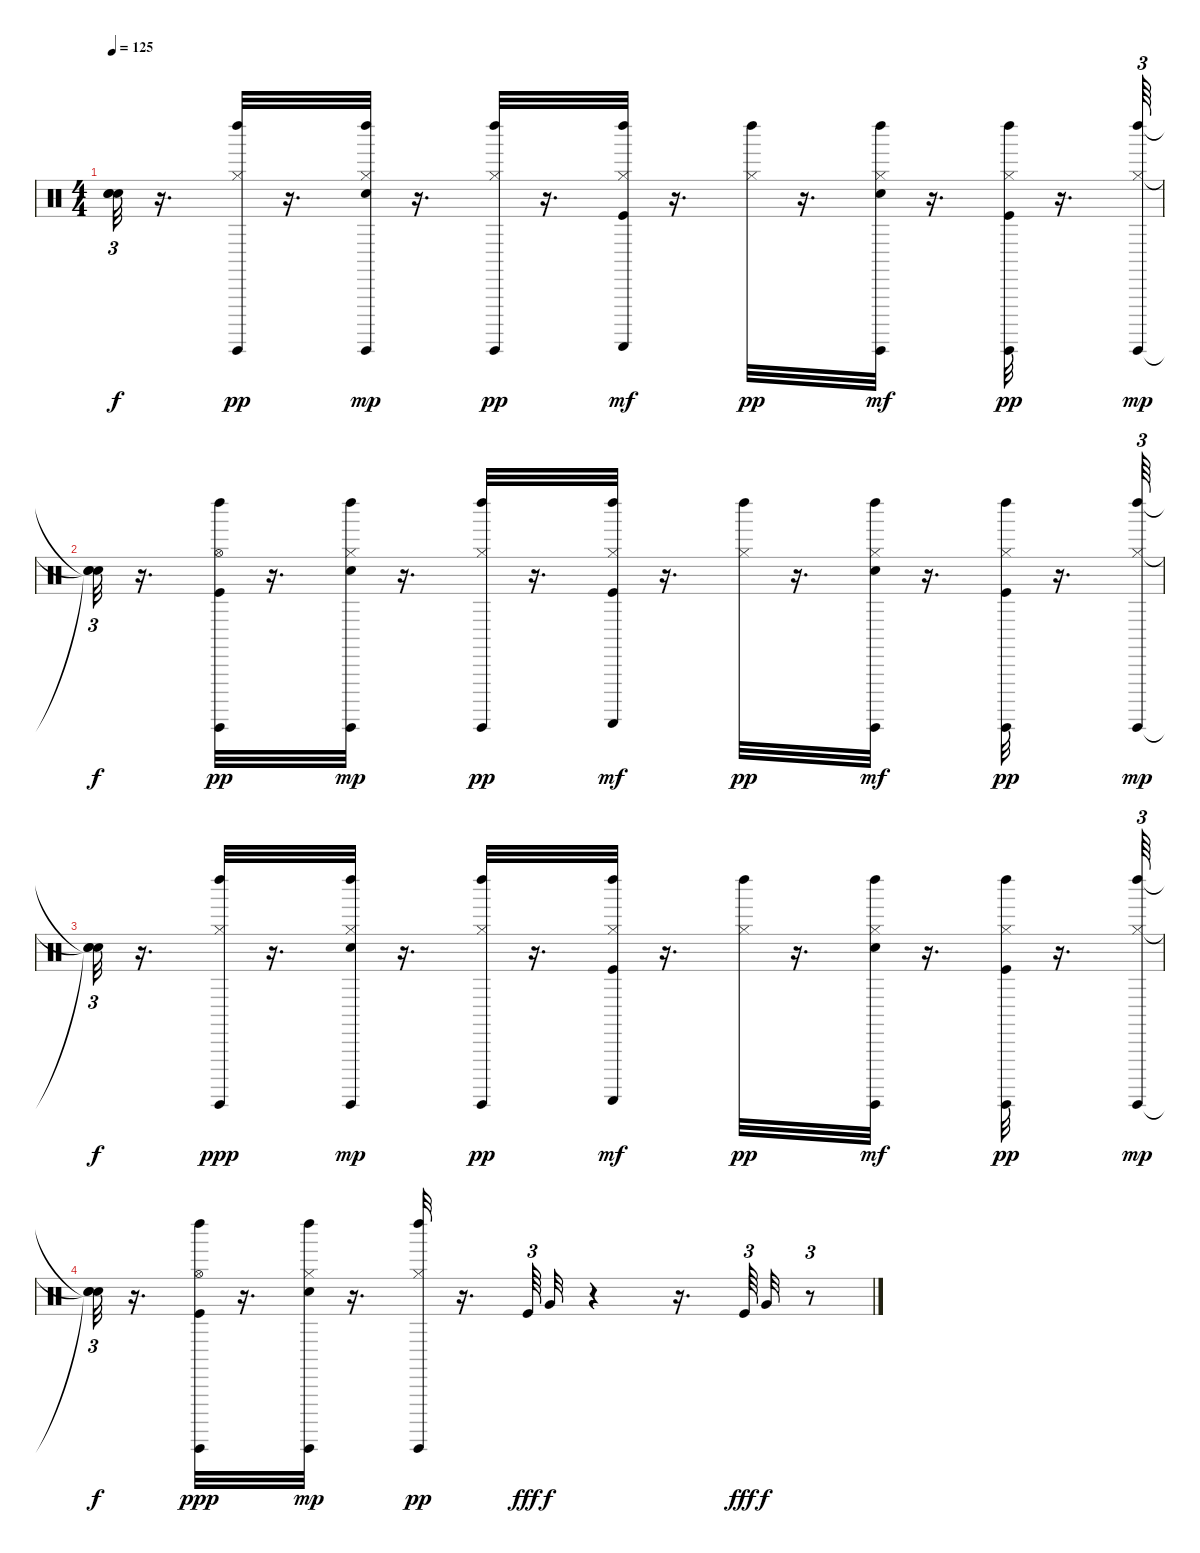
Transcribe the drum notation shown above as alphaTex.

\track "" {instrument percussion}
\staff {score}
\articulation defaults
\ts (4 4)
\tempo 125
\clef neutral
\ks c
("Snare (hit)"{t} "Snare (hit)"{t} "Snare (hit)"{t}).32{tu (3 2) dy f} r.16{d} ("Hi-Hat (closed)" "Left Maraca (hit)" "Guiro (hit)").32{dy pp} r.16{d} ("Left Maraca (hit)" "Hi-Hat (closed)" "Electric Snare (hit)" "Guiro (hit)").32{dy mp} r.16{d} ("Hi-Hat (closed)" "Left Maraca (hit)" "Guiro (hit)").32{dy pp} r.16{d} ("Kick (hit)" "Hi-Hat (closed)" "Left Maraca (hit)" "Guiro (scrap-return)").32{dy mf} r.16{d} ("Hi-Hat (closed)" "Left Maraca (hit)").32{dy pp} r.16{d} ("Left Maraca (hit)" "Hi-Hat (closed)" "Electric Snare (hit)" "Guiro (hit)").32{dy mf} r.16{d} ("Hi-Hat (closed)" "Left Maraca (hit)" "Kick (hit)" "Guiro (hit)").32{dy pp} r.16{d} ("Left Maraca (hit)" "Hi-Hat (closed)" "Guiro (hit)").64{tu (3 2) dy mp} |
("Snare (hit)"{t} "Snare (hit)"{t} "Snare (hit)"{t}).32{tu (3 2) dy f} r.16{d} ("Left Maraca (hit)" "Hi-Hat (open)" "Kick (hit)" "Guiro (hit)").32{dy pp} r.16{d} ("Left Maraca (hit)" "Electric Snare (hit)" "Hi-Hat (closed)" "Guiro (hit)").32{dy mp} r.16{d} ("Left Maraca (hit)" "Hi-Hat (closed)" "Guiro (hit)").32{dy pp} r.16{d} ("Kick (hit)" "Hi-Hat (closed)" "Left Maraca (hit)" "Guiro (scrap-return)").32{dy mf} r.16{d} ("Left Maraca (hit)" "Hi-Hat (closed)").32{dy pp} r.16{d} ("Left Maraca (hit)" "Hi-Hat (closed)" "Electric Snare (hit)" "Guiro (hit)").32{dy mf} r.16{d} ("Kick (hit)" "Hi-Hat (closed)" "Left Maraca (hit)" "Guiro (hit)").32{dy pp} r.16{d} ("Hi-Hat (closed)" "Left Maraca (hit)" "Guiro (hit)").64{tu (3 2) dy mp} |
("Snare (hit)"{t} "Snare (hit)"{t} "Snare (hit)"{t}).32{tu (3 2) dy f} r.16{d} ("Hi-Hat (closed)" "Left Maraca (hit)" "Guiro (hit)").32{dy ppp} r.16{d} ("Left Maraca (hit)" "Electric Snare (hit)" "Hi-Hat (closed)" "Guiro (hit)").32{dy mp} r.16{d} ("Left Maraca (hit)" "Hi-Hat (closed)" "Guiro (hit)").32{dy pp} r.16{d} ("Left Maraca (hit)" "Hi-Hat (closed)" "Kick (hit)" "Guiro (scrap-return)").32{dy mf} r.16{d} ("Left Maraca (hit)" "Hi-Hat (closed)").32{dy pp} r.16{d} ("Electric Snare (hit)" "Hi-Hat (closed)" "Left Maraca (hit)" "Guiro (hit)").32{dy mf} r.16{d} ("Left Maraca (hit)" "Hi-Hat (closed)" "Kick (hit)" "Guiro (hit)").32{dy pp} r.16{d} ("Hi-Hat (closed)" "Left Maraca (hit)" "Guiro (hit)").64{tu (3 2) dy mp} |
("Snare (hit)"{t} "Snare (hit)"{t} "Snare (hit)"{t}).32{tu (3 2) dy f} r.16{d} ("Left Maraca (hit)" "Kick (hit)" "Hi-Hat (open)" "Guiro (hit)").32{dy ppp} r.16{d} ("Electric Snare (hit)" "Hi-Hat (closed)" "Left Maraca (hit)" "Guiro (hit)").32{dy mp} r.16{d} ("Hi-Hat (closed)" "Left Maraca (hit)" "Guiro (hit)").32{dy pp} r.16{d} "Kick (hit)".64{tu (3 2) dy fff} "Very Low Tom (hit)".32{dy f} r.4 r.16{d} "Kick (hit)".64{tu (3 2) dy fff} "Very Low Tom (hit)".32{dy f} r.8{tu (3 2)}
